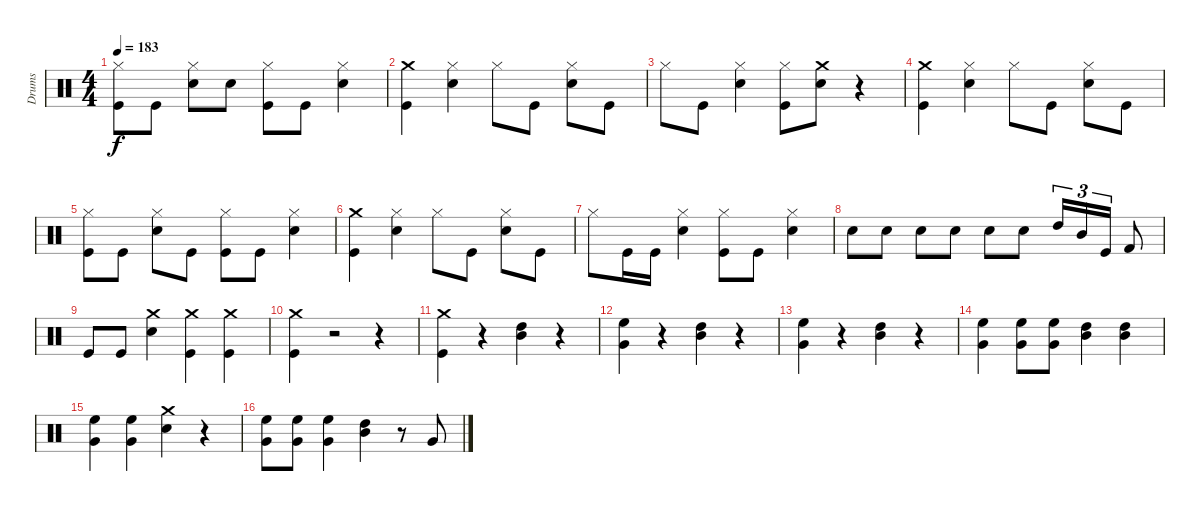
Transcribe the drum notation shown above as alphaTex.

\track ("Drums" "Drums") {instrument percussion}
\staff {score}
\articulation defaults
\ts (4 4)
\tempo 183
\clef neutral
\ks c
("Hi-Hat (closed)" "Kick (hit)").8{dy f} "Kick (hit)".8 ("Snare (hit) 2" "Hi-Hat (closed)").8 "Snare (hit) 2".8 ("Hi-Hat (closed)" "Kick (hit)").8 "Kick (hit)".8 ("Snare (hit) 2" "Hi-Hat (closed)").4 |
("Kick (hit)" "Crash medium (hit)").4 ("Hi-Hat (closed)" "Snare (hit) 2").4 "Hi-Hat (closed)".8 "Kick (hit)".8 ("Snare (hit) 2" "Hi-Hat (closed)").8 "Kick (hit)".8 |
"Hi-Hat (closed)".8 "Kick (hit)".8 ("Snare (hit) 2" "Hi-Hat (closed)").4 ("Kick (hit)" "Hi-Hat (closed)").8 ("Snare (hit) 2" "Crash medium (hit)").8 r.4 |
("Kick (hit)" "Crash medium (hit)").4 ("Hi-Hat (closed)" "Snare (hit) 2").4 "Hi-Hat (closed)".8 "Kick (hit)".8 ("Snare (hit) 2" "Hi-Hat (closed)").8 "Kick (hit)".8 |
("Kick (hit)" "Hi-Hat (closed)").8 "Kick (hit)".8 ("Snare (hit) 2" "Hi-Hat (closed)").8 "Kick (hit)".8 ("Kick (hit)" "Hi-Hat (closed)").8 "Kick (hit)".8 ("Snare (hit) 2" "Hi-Hat (closed)").4 |
("Kick (hit)" "Crash medium (hit)").4 ("Hi-Hat (closed)" "Snare (hit) 2").4 "Hi-Hat (closed)".8 "Kick (hit)".8 ("Snare (hit) 2" "Hi-Hat (closed)").8 "Kick (hit)".8 |
"Hi-Hat (closed)".8 "Kick (hit)".16 "Kick (hit)".16 ("Snare (hit) 2" "Hi-Hat (closed)").4 ("Kick (hit)" "Hi-Hat (closed)").8 "Kick (hit)".8 ("Snare (hit) 2" "Hi-Hat (closed)").4 |
"Snare (hit) 2".8 "Snare (hit) 2".8 "Snare (hit) 2".8 "Snare (hit) 2".8 "Snare (hit) 2".8 "Snare (hit) 2".8 "High Tom (hit)".16{tu (3 2)} "Mid Tom (hit)".16{tu (3 2)} "Kick (hit)".16{tu (3 2)} "Kick (hit) 2".8 |
"Kick (hit)".8 "Kick (hit)".8 ("Snare (hit) 2" "Crash medium (hit)").4 ("Kick (hit)" "Crash medium (hit)").4 ("Kick (hit)" "Crash medium (hit)").4 |
("Crash medium (hit)" "Kick (hit)").4 r.2 r.4 |
("Kick (hit)" "Crash medium (hit)").4 r.4 ("High Tom (hit)" "Mid Tom (hit)").4 r.4 |
("Very Low Tom (hit)" "High Floor Tom (hit)").4 r.4 ("Mid Tom (hit)" "High Tom (hit)").4 r.4 |
("Very Low Tom (hit)" "High Floor Tom (hit)").4 r.4 ("Mid Tom (hit)" "High Tom (hit)").4 r.4 |
("High Floor Tom (hit)" "Very Low Tom (hit)").4 ("High Floor Tom (hit)" "Very Low Tom (hit)").8 ("High Floor Tom (hit)" "Very Low Tom (hit)").8 ("Mid Tom (hit)" "High Tom (hit)").4 ("Mid Tom (hit)" "High Tom (hit)").4 |
("Very Low Tom (hit)" "High Floor Tom (hit)").4 ("Very Low Tom (hit)" "High Floor Tom (hit)").4 ("Crash medium (hit)" "Snare (hit) 2").4 r.4 |
("Very Low Tom (hit)" "High Floor Tom (hit)").8 ("Very Low Tom (hit)" "High Floor Tom (hit)").8 ("Very Low Tom (hit)" "High Floor Tom (hit)").4 ("Mid Tom (hit)" "High Tom (hit)").4 r.8 "Very Low Tom (hit)".8
